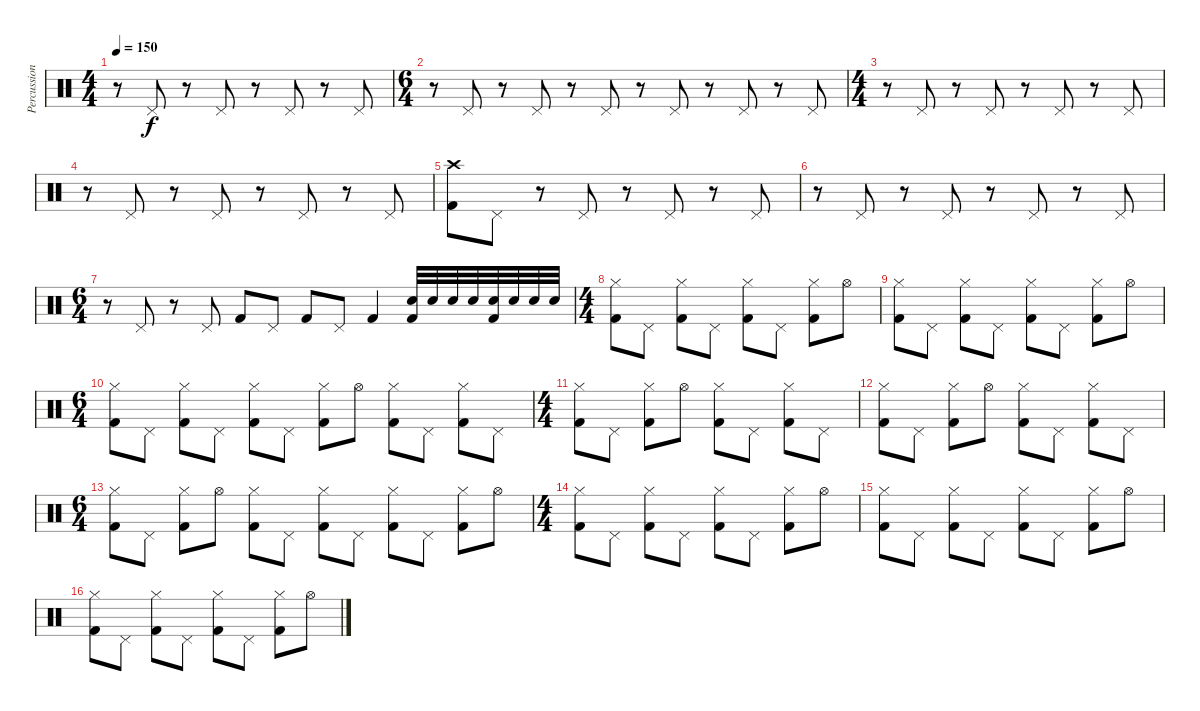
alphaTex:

\track ("Percussions" "Percussion") {instrument percussion}
\staff {score}
\articulation defaults
\ts (4 4)
\tempo 150
\clef neutral
\ks c
r.8{dy f} "Pedal Hi-Hat (hit)".8 r.8 "Pedal Hi-Hat (hit)".8 r.8 "Pedal Hi-Hat (hit)".8 r.8 "Pedal Hi-Hat (hit)".8 |
\ts (6 4)
r.8 "Pedal Hi-Hat (hit)".8 r.8 "Pedal Hi-Hat (hit)".8 r.8 "Pedal Hi-Hat (hit)".8 r.8 "Pedal Hi-Hat (hit)".8 r.8 "Pedal Hi-Hat (hit)".8 r.8 "Pedal Hi-Hat (hit)".8 |
\ts (4 4)
r.8 "Pedal Hi-Hat (hit)".8 r.8 "Pedal Hi-Hat (hit)".8 r.8 "Pedal Hi-Hat (hit)".8 r.8 "Pedal Hi-Hat (hit)".8 |
r.8 "Pedal Hi-Hat (hit)".8 r.8 "Pedal Hi-Hat (hit)".8 r.8 "Pedal Hi-Hat (hit)".8 r.8 "Pedal Hi-Hat (hit)".8 |
("Crash high (hit)" "Kick (hit) 2").8 "Pedal Hi-Hat (hit)".8 r.8 "Pedal Hi-Hat (hit)".8 r.8 "Pedal Hi-Hat (hit)".8 r.8 "Pedal Hi-Hat (hit)".8 |
r.8 "Pedal Hi-Hat (hit)".8 r.8 "Pedal Hi-Hat (hit)".8 r.8 "Pedal Hi-Hat (hit)".8 r.8 "Pedal Hi-Hat (hit)".8 |
\ts (6 4)
r.8 "Pedal Hi-Hat (hit)".8 r.8 "Pedal Hi-Hat (hit)".8 "Kick (hit) 2".8 "Pedal Hi-Hat (hit)".8 "Kick (hit) 2".8 "Pedal Hi-Hat (hit)".8 "Kick (hit) 2".4 ("Electric Snare (hit)" "Kick (hit) 2").32 "Electric Snare (hit)".32 "Electric Snare (hit)".32 "Electric Snare (hit)".32 ("Electric Snare (hit)" "Kick (hit) 2").32 "Electric Snare (hit)".32 "Electric Snare (hit)".32 "Electric Snare (hit)".32 |
\ts (4 4)
("Hi-Hat (closed)" "Kick (hit) 2").8 "Pedal Hi-Hat (hit)".8 ("Hi-Hat (closed)" "Kick (hit) 2").8 "Pedal Hi-Hat (hit)".8 ("Hi-Hat (closed)" "Kick (hit) 2").8 "Pedal Hi-Hat (hit)".8 ("Hi-Hat (closed)" "Kick (hit) 2").8 "Hi-Hat (open)".8 |
("Hi-Hat (closed)" "Kick (hit) 2").8 "Pedal Hi-Hat (hit)".8 ("Hi-Hat (closed)" "Kick (hit) 2").8 "Pedal Hi-Hat (hit)".8 ("Hi-Hat (closed)" "Kick (hit) 2").8 "Pedal Hi-Hat (hit)".8 ("Hi-Hat (closed)" "Kick (hit) 2").8 "Hi-Hat (open)".8 |
\ts (6 4)
("Hi-Hat (closed)" "Kick (hit) 2").8 "Pedal Hi-Hat (hit)".8 ("Hi-Hat (closed)" "Kick (hit) 2").8 "Pedal Hi-Hat (hit)".8 ("Hi-Hat (closed)" "Kick (hit) 2").8 "Pedal Hi-Hat (hit)".8 ("Hi-Hat (closed)" "Kick (hit) 2").8 "Hi-Hat (open)".8 ("Hi-Hat (closed)" "Kick (hit) 2").8 "Pedal Hi-Hat (hit)".8 ("Hi-Hat (closed)" "Kick (hit) 2").8 "Pedal Hi-Hat (hit)".8 |
\ts (4 4)
("Hi-Hat (closed)" "Kick (hit) 2").8 "Pedal Hi-Hat (hit)".8 ("Hi-Hat (closed)" "Kick (hit) 2").8 "Hi-Hat (open)".8 ("Hi-Hat (closed)" "Kick (hit) 2").8 "Pedal Hi-Hat (hit)".8 ("Hi-Hat (closed)" "Kick (hit) 2").8 "Pedal Hi-Hat (hit)".8 |
("Hi-Hat (closed)" "Kick (hit) 2").8 "Pedal Hi-Hat (hit)".8 ("Hi-Hat (closed)" "Kick (hit) 2").8 "Hi-Hat (open)".8 ("Hi-Hat (closed)" "Kick (hit) 2").8 "Pedal Hi-Hat (hit)".8 ("Hi-Hat (closed)" "Kick (hit) 2").8 "Pedal Hi-Hat (hit)".8 |
\ts (6 4)
("Hi-Hat (closed)" "Kick (hit) 2").8 "Pedal Hi-Hat (hit)".8 ("Hi-Hat (closed)" "Kick (hit) 2").8 "Hi-Hat (open)".8 ("Hi-Hat (closed)" "Kick (hit) 2").8 "Pedal Hi-Hat (hit)".8 ("Hi-Hat (closed)" "Kick (hit) 2").8 "Pedal Hi-Hat (hit)".8 ("Hi-Hat (closed)" "Kick (hit) 2").8 "Pedal Hi-Hat (hit)".8 ("Hi-Hat (closed)" "Kick (hit) 2").8 "Hi-Hat (open)".8 |
\ts (4 4)
("Hi-Hat (closed)" "Kick (hit) 2").8 "Pedal Hi-Hat (hit)".8 ("Hi-Hat (closed)" "Kick (hit) 2").8 "Pedal Hi-Hat (hit)".8 ("Hi-Hat (closed)" "Kick (hit) 2").8 "Pedal Hi-Hat (hit)".8 ("Hi-Hat (closed)" "Kick (hit) 2").8 "Hi-Hat (open)".8 |
("Hi-Hat (closed)" "Kick (hit) 2").8 "Pedal Hi-Hat (hit)".8 ("Hi-Hat (closed)" "Kick (hit) 2").8 "Pedal Hi-Hat (hit)".8 ("Hi-Hat (closed)" "Kick (hit) 2").8 "Pedal Hi-Hat (hit)".8 ("Hi-Hat (closed)" "Kick (hit) 2").8 "Hi-Hat (open)".8 |
("Hi-Hat (closed)" "Kick (hit) 2").8 "Pedal Hi-Hat (hit)".8 ("Hi-Hat (closed)" "Kick (hit) 2").8 "Pedal Hi-Hat (hit)".8 ("Hi-Hat (closed)" "Kick (hit) 2").8 "Pedal Hi-Hat (hit)".8 ("Hi-Hat (closed)" "Kick (hit) 2").8 "Hi-Hat (open)".8
